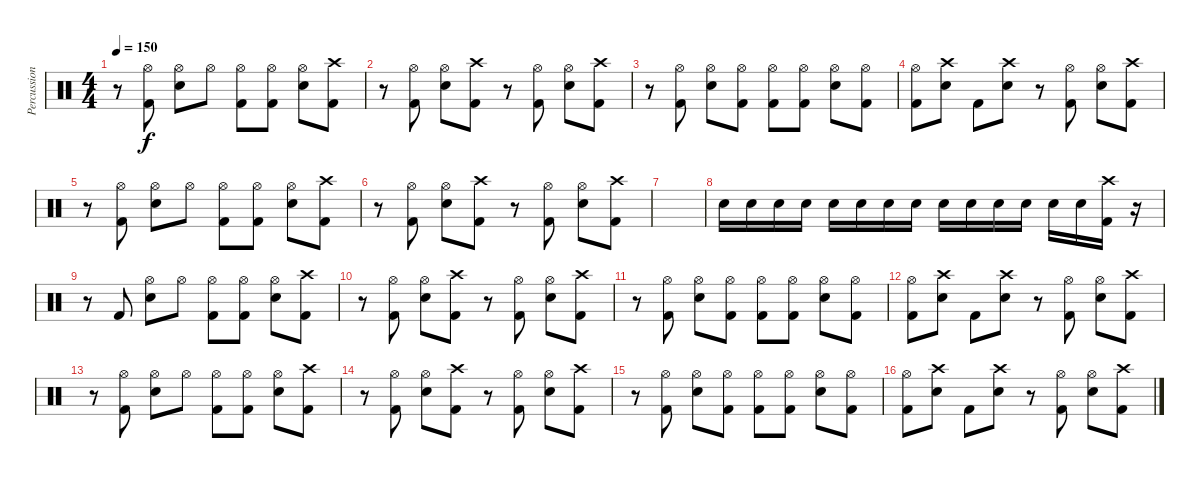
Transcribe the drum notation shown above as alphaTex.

\track ("Percussion" "Percussion") {instrument percussion}
\staff {score}
\articulation defaults
\ts (4 4)
\tempo 150
\clef neutral
\ks c
r.8{dy f} ("Hi-Hat (open)" "Kick (hit) 2").8 ("Hi-Hat (open)" "Electric Snare (hit)").8 "Hi-Hat (open)".8 ("Hi-Hat (open)" "Kick (hit) 2").8 ("Hi-Hat (open)" "Kick (hit) 2").8 ("Hi-Hat (open)" "Electric Snare (hit)").8 ("Crash high (hit)" "Kick (hit) 2").8 |
r.8 ("Hi-Hat (open)" "Kick (hit) 2").8 ("Hi-Hat (open)" "Electric Snare (hit)").8 ("Crash high (hit)" "Kick (hit) 2").8 r.8 ("Hi-Hat (open)" "Kick (hit) 2").8 ("Hi-Hat (open)" "Electric Snare (hit)").8 ("Crash high (hit)" "Kick (hit) 2").8 |
r.8 ("Hi-Hat (open)" "Kick (hit) 2").8 ("Hi-Hat (open)" "Electric Snare (hit)").8 ("Hi-Hat (open)" "Kick (hit) 2").8 ("Hi-Hat (open)" "Kick (hit) 2").8 ("Hi-Hat (open)" "Kick (hit) 2").8 ("Hi-Hat (open)" "Electric Snare (hit)").8 ("Hi-Hat (open)" "Kick (hit) 2").8 |
("Hi-Hat (open)" "Kick (hit) 2").8 ("Crash high (hit)" "Electric Snare (hit)").8 "Kick (hit) 2".8 ("Crash high (hit)" "Electric Snare (hit)").8 r.8 ("Hi-Hat (open)" "Kick (hit) 2").8 ("Hi-Hat (open)" "Electric Snare (hit)").8 ("Crash high (hit)" "Kick (hit) 2").8 |
r.8 ("Hi-Hat (open)" "Kick (hit) 2").8 ("Hi-Hat (open)" "Electric Snare (hit)").8 "Hi-Hat (open)".8 ("Hi-Hat (open)" "Kick (hit) 2").8 ("Hi-Hat (open)" "Kick (hit) 2").8 ("Hi-Hat (open)" "Electric Snare (hit)").8 ("Crash high (hit)" "Kick (hit) 2").8 |
r.8 ("Hi-Hat (open)" "Kick (hit) 2").8 ("Hi-Hat (open)" "Electric Snare (hit)").8 ("Crash high (hit)" "Kick (hit) 2").8 r.8 ("Hi-Hat (open)" "Kick (hit) 2").8 ("Hi-Hat (open)" "Electric Snare (hit)").8 ("Crash high (hit)" "Kick (hit) 2").8 |
|
"Electric Snare (hit)".16 "Electric Snare (hit)".16 "Electric Snare (hit)".16 "Electric Snare (hit)".16 "Electric Snare (hit)".16 "Electric Snare (hit)".16 "Electric Snare (hit)".16 "Electric Snare (hit)".16 "Electric Snare (hit)".16 "Electric Snare (hit)".16 "Electric Snare (hit)".16 "Electric Snare (hit)".16 "Electric Snare (hit)".16 "Electric Snare (hit)".16 ("Crash high (hit)" "Kick (hit) 2").16 r.16 |
r.8 "Kick (hit) 2".8 ("Hi-Hat (open)" "Electric Snare (hit)").8 "Hi-Hat (open)".8 ("Hi-Hat (open)" "Kick (hit) 2").8 ("Hi-Hat (open)" "Kick (hit) 2").8 ("Hi-Hat (open)" "Electric Snare (hit)").8 ("Crash high (hit)" "Kick (hit) 2").8 |
r.8 ("Hi-Hat (open)" "Kick (hit) 2").8 ("Hi-Hat (open)" "Electric Snare (hit)").8 ("Crash high (hit)" "Kick (hit) 2").8 r.8 ("Hi-Hat (open)" "Kick (hit) 2").8 ("Hi-Hat (open)" "Electric Snare (hit)").8 ("Crash high (hit)" "Kick (hit) 2").8 |
r.8 ("Hi-Hat (open)" "Kick (hit) 2").8 ("Hi-Hat (open)" "Electric Snare (hit)").8 ("Hi-Hat (open)" "Kick (hit) 2").8 ("Hi-Hat (open)" "Kick (hit) 2").8 ("Hi-Hat (open)" "Kick (hit) 2").8 ("Hi-Hat (open)" "Electric Snare (hit)").8 ("Hi-Hat (open)" "Kick (hit) 2").8 |
("Hi-Hat (open)" "Kick (hit) 2").8 ("Crash high (hit)" "Electric Snare (hit)").8 "Kick (hit) 2".8 ("Crash high (hit)" "Electric Snare (hit)").8 r.8 ("Hi-Hat (open)" "Kick (hit) 2").8 ("Hi-Hat (open)" "Electric Snare (hit)").8 ("Crash high (hit)" "Kick (hit) 2").8 |
r.8 ("Hi-Hat (open)" "Kick (hit) 2").8 ("Hi-Hat (open)" "Electric Snare (hit)").8 "Hi-Hat (open)".8 ("Hi-Hat (open)" "Kick (hit) 2").8 ("Hi-Hat (open)" "Kick (hit) 2").8 ("Hi-Hat (open)" "Electric Snare (hit)").8 ("Crash high (hit)" "Kick (hit) 2").8 |
r.8 ("Hi-Hat (open)" "Kick (hit) 2").8 ("Hi-Hat (open)" "Electric Snare (hit)").8 ("Crash high (hit)" "Kick (hit) 2").8 r.8 ("Hi-Hat (open)" "Kick (hit) 2").8 ("Hi-Hat (open)" "Electric Snare (hit)").8 ("Crash high (hit)" "Kick (hit) 2").8 |
r.8 ("Hi-Hat (open)" "Kick (hit) 2").8 ("Hi-Hat (open)" "Electric Snare (hit)").8 ("Hi-Hat (open)" "Kick (hit) 2").8 ("Hi-Hat (open)" "Kick (hit) 2").8 ("Hi-Hat (open)" "Kick (hit) 2").8 ("Hi-Hat (open)" "Electric Snare (hit)").8 ("Hi-Hat (open)" "Kick (hit) 2").8 |
("Hi-Hat (open)" "Kick (hit) 2").8 ("Crash high (hit)" "Electric Snare (hit)").8 "Kick (hit) 2".8 ("Crash high (hit)" "Electric Snare (hit)").8 r.8 ("Hi-Hat (open)" "Kick (hit) 2").8 ("Hi-Hat (open)" "Electric Snare (hit)").8 ("Crash high (hit)" "Kick (hit) 2").8
